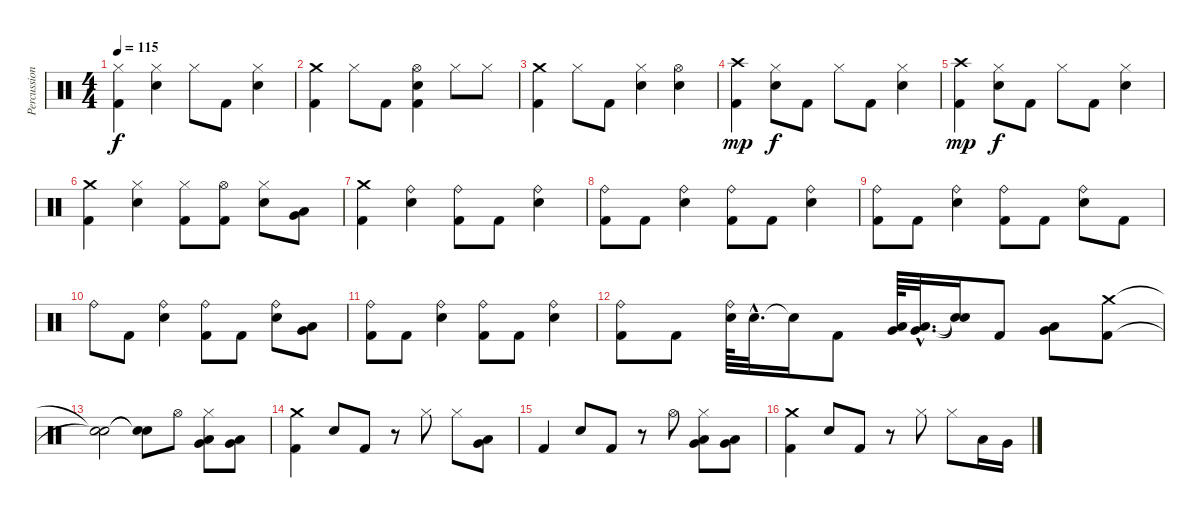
\track ("Percussion" "Percussion") {instrument percussion}
\staff {score}
\articulation defaults
\ts (4 4)
\tempo 115
\clef neutral
\ks c
("Hi-Hat (closed)" "Kick (hit) 2").4{dy f} ("Hi-Hat (closed)" "Metronome (bell)").4 "Hi-Hat (closed)".8 "Kick (hit) 2".8 ("Hi-Hat (closed)" "Metronome (bell)").4 |
("Crash medium (hit)" "Kick (hit) 2").4 "Hi-Hat (closed)".8 "Kick (hit) 2".8 ("Hi-Hat (open)" "Metronome (bell)" "Kick (hit) 2").4 "Hi-Hat (closed)".8 "Hi-Hat (closed)".8 |
("Crash medium (hit)" "Kick (hit) 2").4 "Hi-Hat (closed)".8 "Kick (hit) 2".8 ("Hi-Hat (closed)" "Metronome (bell)").4 ("Hi-Hat (open)" "Metronome (bell)").4 |
("Crash high (hit)" "Kick (hit) 2").4{dy mp} ("Hi-Hat (closed)" "Metronome (bell)").8{dy f} "Kick (hit) 2".8 "Hi-Hat (closed)".8 "Kick (hit) 2".8 ("Hi-Hat (closed)" "Metronome (bell)").4 |
("Crash high (hit)" "Kick (hit) 2").4{dy mp} ("Hi-Hat (closed)" "Metronome (bell)").8{dy f} "Kick (hit) 2".8 "Hi-Hat (closed)".8 "Kick (hit) 2".8 ("Hi-Hat (closed)" "Metronome (bell)").4 |
("Crash medium (hit)" "Kick (hit) 2").4 ("Hi-Hat (closed)" "Metronome (bell)").4 ("Hi-Hat (closed)" "Kick (hit) 2").8 ("Hi-Hat (open)" "Kick (hit) 2").8 ("Hi-Hat (closed)" "Metronome (bell)").8 ("Low Tom (hit)" "Very Low Tom (hit)").8 |
("Crash medium (hit)" "Kick (hit) 2").4 ("Ride (bell)" "Metronome (bell)").4 ("Ride (bell)" "Kick (hit) 2").8 "Kick (hit) 2".8 ("Ride (bell)" "Metronome (bell)").4 |
("Ride (bell)" "Kick (hit) 2").8 "Kick (hit) 2".8 ("Ride (bell)" "Metronome (bell)").4 ("Ride (bell)" "Kick (hit) 2").8 "Kick (hit) 2".8 ("Ride (bell)" "Metronome (bell)").4 |
("Ride (bell)" "Kick (hit) 2").8 "Kick (hit) 2".8 ("Ride (bell)" "Metronome (bell)").4 ("Ride (bell)" "Kick (hit) 2").8 "Kick (hit) 2".8 ("Ride (bell)" "Metronome (bell)").8 "Kick (hit) 2".8 |
"Ride (bell)".8 "Kick (hit) 2".8 ("Ride (bell)" "Metronome (bell)").4 ("Ride (bell)" "Kick (hit) 2").8 "Kick (hit) 2".8 ("Ride (bell)" "Metronome (bell)").8 ("Low Tom (hit)" "Very Low Tom (hit)").8 |
("Ride (bell)" "Kick (hit) 2").8 "Kick (hit) 2".8 ("Ride (bell)" "Metronome (bell)").4 ("Ride (bell)" "Kick (hit) 2").8 "Kick (hit) 2".8 ("Ride (bell)" "Metronome (bell)").4 |
("Ride (bell)" "Kick (hit) 2").8 "Kick (hit) 2".8 ("Ride (bell)" "Metronome (bell)").64 "Metronome (bell)"{hac}.32{d} "Snare (hit)"{t}.16 "Kick (hit) 2".8 ("Low Tom (hit)" "Very Low Tom (hit)").64 ("Low Tom (hit)"{hac} "Very Low Tom (hit)"{hac}).32{d} ("Snare (hit)"{t} "Snare (hit)"{t}).16 "Kick (hit) 2".8 ("Very Low Tom (hit)" "Low Floor Tom (hit)").8 ("Crash medium (hit)" "Kick (hit) 2").8 |
("Snare (hit)"{t} "Snare (hit)"{t}).2 ("Snare (hit)"{t} "Snare (hit)"{t}).8 "Hi-Hat (open)".8 ("Hi-Hat (closed)" "Low Tom (hit)" "Very Low Tom (hit)").8 ("Very Low Tom (hit)" "Low Floor Tom (hit)").8 |
("Crash medium (hit)" "Kick (hit) 2").4 "Metronome (bell)".8 "Kick (hit) 2".8 r.8 "Hi-Hat (closed)".8 "Hi-Hat (closed)".8 ("Low Tom (hit)" "Very Low Tom (hit)").8 |
"Kick (hit) 2".4 "Metronome (bell)".8 "Kick (hit) 2".8 r.8 "Hi-Hat (open)".8 ("Hi-Hat (closed)" "Low Tom (hit)" "Very Low Tom (hit)").8 ("Very Low Tom (hit)" "Low Floor Tom (hit)").8 |
("Crash medium (hit)" "Kick (hit) 2").4 "Metronome (bell)".8 "Kick (hit) 2".8 r.8 "Hi-Hat (closed)".8 "Hi-Hat (closed)".8 "Low Tom (hit)".16 "Very Low Tom (hit)".16
